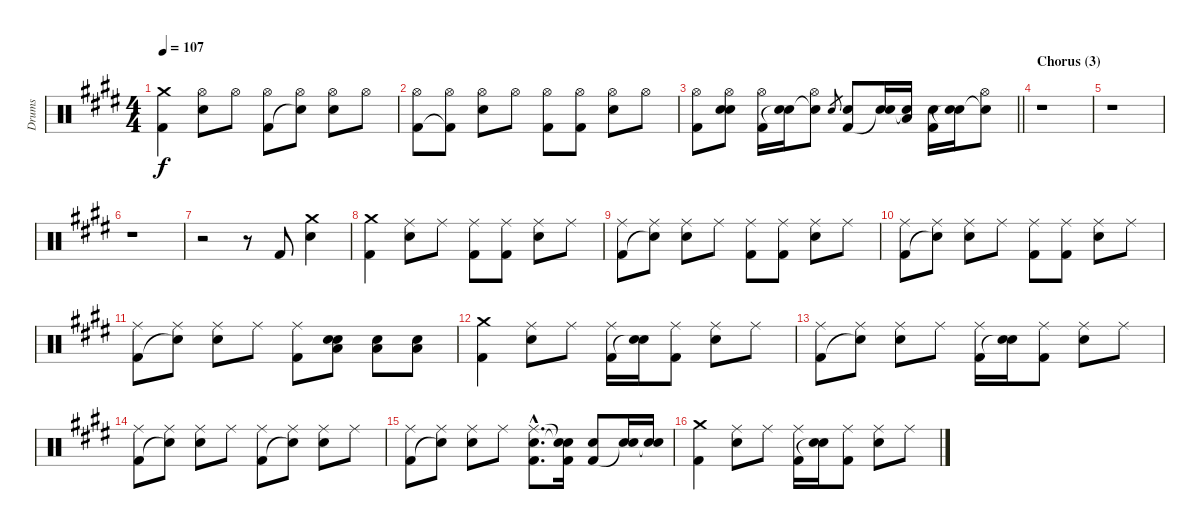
\track ("Drums" "Drums") {instrument percussion}
\staff {score}
\articulation defaults
\ts (4 4)
\tempo 107
\clef neutral
\ks e
("Crash medium (hit)" "Kick (hit) 2").4{dy f} ("Hi-Hat (open)" "Electric Snare (hit)").8 "Hi-Hat (open)".8 ("Hi-Hat (open)" "Kick (hit) 2").8 ("Hi-Hat (open)" "Snare (hit)"{t}).8 ("Hi-Hat (open)" "Electric Snare (hit)").8 "Hi-Hat (open)".8 |
("Hi-Hat (open)" "Kick (hit) 2").8 ("Hi-Hat (open)" "Kick (hit) 2"{t}).8 ("Hi-Hat (open)" "Electric Snare (hit)").8 "Hi-Hat (open)".8 ("Hi-Hat (open)" "Kick (hit) 2").8 ("Hi-Hat (open)" "Kick (hit) 2").8 ("Hi-Hat (open)" "Electric Snare (hit)").8 "Hi-Hat (open)".8 |
\barLineRight lightlight
("Hi-Hat (open)" "Kick (hit) 2").8 ("Hi-Hat (open)" "Electric Snare (hit)" "Snare (hit)").8 ("Hi-Hat (open)" "Kick (hit) 2").16 ("Electric Snare (hit)" "Snare (hit)"{t}).16 ("Hi-Hat (open)" "Snare (hit)"{t}).8 "Electric Snare (hit)".8{gr} ("Electric Snare (hit)" "Kick (hit) 2").8 ("Electric Snare (hit)" "Snare (hit)"{t}).16 ("Low Tom (hit)" "Snare (hit)"{t}).16 ("Electric Snare (hit)" "Kick (hit) 2").16 ("Electric Snare (hit)" "Snare (hit)"{t}).16 ("Hi-Hat (open)" "Snare (hit)"{t}).8 |
\section ("" "Chorus (3)")
r.1 |
r.1 |
r.1 |
r.2 r.8 "Kick (hit) 2".8 ("Crash medium (hit)" "Electric Snare (hit)").4 |
("Crash medium (hit)" "Kick (hit) 2").4 ("Ride (middle)" "Electric Snare (hit)").8 "Ride (middle)".8 ("Ride (middle)" "Kick (hit) 2").8 ("Ride (middle)" "Kick (hit) 2").8 ("Ride (middle)" "Electric Snare (hit)").8 "Ride (middle)".8 |
("Ride (middle)" "Kick (hit) 2").8 ("Ride (middle)" "Snare (hit)"{t}).8 ("Ride (middle)" "Electric Snare (hit)").8 "Ride (middle)".8 ("Ride (middle)" "Kick (hit) 2").8 ("Ride (middle)" "Kick (hit) 2").8 ("Ride (middle)" "Electric Snare (hit)").8 "Ride (middle)".8 |
("Ride (middle)" "Kick (hit) 2").8 ("Ride (middle)" "Snare (hit)"{t}).8 ("Ride (middle)" "Electric Snare (hit)").8 "Ride (middle)".8 ("Ride (middle)" "Kick (hit) 2").8 ("Ride (middle)" "Kick (hit) 2").8 ("Ride (middle)" "Electric Snare (hit)").8 "Ride (middle)".8 |
("Ride (middle)" "Kick (hit) 2").8 ("Ride (middle)" "Snare (hit)"{t}).8 ("Ride (middle)" "Electric Snare (hit)").8 "Ride (middle)".8 ("Ride (middle)" "Kick (hit) 2").8 ("Electric Snare (hit)" "Low Floor Tom (hit)" "Snare (hit)").8 ("Electric Snare (hit)" "Low Floor Tom (hit)").8 ("Electric Snare (hit)" "Low Floor Tom (hit)").8 |
("Crash medium (hit)" "Kick (hit) 2").4 ("Ride (middle)" "Electric Snare (hit)").8 "Ride (middle)".8 ("Ride (middle)" "Kick (hit) 2").16 ("Electric Snare (hit)" "Snare (hit)"{t}).16 ("Ride (middle)" "Kick (hit) 2").8 ("Ride (middle)" "Electric Snare (hit)").8 "Ride (middle)".8 |
("Ride (middle)" "Kick (hit) 2").8 ("Ride (middle)" "Snare (hit)"{t}).8 ("Ride (middle)" "Electric Snare (hit)").8 "Ride (middle)".8 ("Ride (middle)" "Kick (hit) 2").16 ("Electric Snare (hit)" "Snare (hit)"{t}).16 ("Ride (middle)" "Kick (hit) 2").8 ("Ride (middle)" "Electric Snare (hit)").8 "Ride (middle)".8 |
("Ride (middle)" "Kick (hit) 2").8 ("Ride (middle)" "Snare (hit)"{t}).8 ("Ride (middle)" "Electric Snare (hit)").8 "Ride (middle)".8 ("Ride (middle)" "Kick (hit) 2").8 ("Ride (middle)" "Snare (hit)"{t}).8 ("Ride (middle)" "Electric Snare (hit)").8 "Ride (middle)".8 |
("Ride (middle)" "Kick (hit) 2").8 ("Ride (middle)" "Snare (hit)"{t}).8 ("Ride (middle)" "Electric Snare (hit)").8 "Ride (middle)".8 ("Ride (middle)"{hac} "Electric Snare (hit)"{hac} "Kick (hit) 2"{hac}).8{d} ("Snare (hit)"{t} "Snare (hit)"{t} "Kick (hit) 2").16 ("Electric Snare (hit)" "Kick (hit) 2").8 ("Electric Snare (hit)" "Snare (hit)"{t}).16 ("Electric Snare (hit)" "Snare (hit)"{t}).16 |
("Crash medium (hit)" "Kick (hit) 2").4 ("Ride (middle)" "Electric Snare (hit)").8 "Ride (middle)".8 ("Ride (middle)" "Kick (hit) 2").16 ("Electric Snare (hit)" "Snare (hit)"{t}).16 ("Ride (middle)" "Kick (hit) 2").8 ("Ride (middle)" "Electric Snare (hit)").8 "Ride (middle)".8
